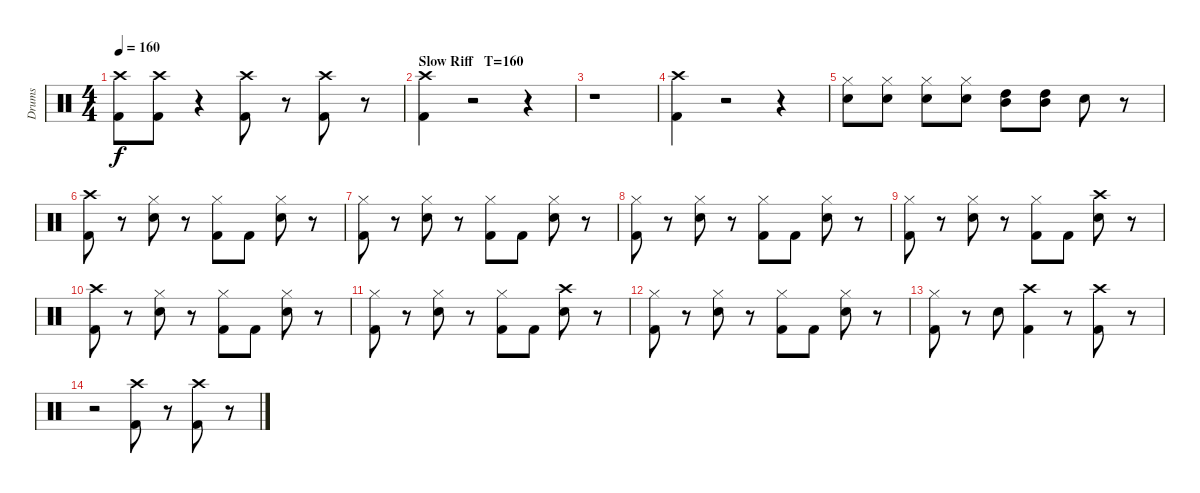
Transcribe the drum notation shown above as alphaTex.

\track ("Drums" "Drums") {instrument percussion}
\staff {score}
\articulation defaults
\ts (4 4)
\tempo 160
\clef neutral
\ks c
("Kick (hit) 2" "Crash high (hit)").8{dy f} ("Kick (hit) 2" "Crash high (hit)").8 r.4 ("Kick (hit) 2" "Crash high (hit)").8 r.8 ("Kick (hit) 2" "Crash high (hit)").8 r.8 |
\section ("" "Slow Riff   T=160")
("Crash high (hit)" "Kick (hit) 2").4 r.2 r.4 |
r.1 |
("Kick (hit) 2" "Crash high (hit)").4 r.2 r.4 |
("Hi-Hat (closed)" "Snare (hit) 2").8 ("Hi-Hat (closed)" "Snare (hit) 2").8 ("Hi-Hat (closed)" "Snare (hit) 2").8 ("Hi-Hat (closed)" "Snare (hit) 2").8 ("High Tom (hit)" "Mid Tom (hit)").8 ("Mid Tom (hit)" "High Tom (hit)").8 "Snare (hit) 2".8 r.8 |
("Kick (hit) 2" "Crash high (hit)").8 r.8 ("Hi-Hat (closed)" "Snare (hit) 2").8 r.8 ("Hi-Hat (closed)" "Kick (hit) 2").8 "Kick (hit) 2".8 ("Hi-Hat (closed)" "Snare (hit) 2").8 r.8 |
("Kick (hit) 2" "Hi-Hat (closed)").8 r.8 ("Snare (hit) 2" "Hi-Hat (closed)").8 r.8 ("Kick (hit) 2" "Hi-Hat (closed)").8 "Kick (hit) 2".8 ("Snare (hit) 2" "Hi-Hat (closed)").8 r.8 |
("Kick (hit) 2" "Hi-Hat (closed)").8 r.8 ("Snare (hit) 2" "Hi-Hat (closed)").8 r.8 ("Kick (hit) 2" "Hi-Hat (closed)").8 "Kick (hit) 2".8 ("Snare (hit) 2" "Hi-Hat (closed)").8 r.8 |
("Kick (hit) 2" "Hi-Hat (closed)").8 r.8 ("Snare (hit) 2" "Hi-Hat (closed)").8 r.8 ("Kick (hit) 2" "Hi-Hat (closed)").8 "Kick (hit) 2".8 ("Snare (hit) 2" "Crash high (hit)").8 r.8 |
("Kick (hit) 2" "Crash high (hit)").8 r.8 ("Hi-Hat (closed)" "Snare (hit) 2").8 r.8 ("Hi-Hat (closed)" "Kick (hit) 2").8 "Kick (hit) 2".8 ("Snare (hit) 2" "Hi-Hat (closed)").8 r.8 |
("Kick (hit) 2" "Hi-Hat (closed)").8 r.8 ("Snare (hit) 2" "Hi-Hat (closed)").8 r.8 ("Kick (hit) 2" "Hi-Hat (closed)").8 "Kick (hit) 2".8 ("Snare (hit) 2" "Crash high (hit)").8 r.8 |
("Kick (hit) 2" "Hi-Hat (closed)").8 r.8 ("Snare (hit) 2" "Hi-Hat (closed)").8 r.8 ("Kick (hit) 2" "Hi-Hat (closed)").8 "Kick (hit) 2".8 ("Snare (hit) 2" "Hi-Hat (closed)").8 r.8 |
("Kick (hit) 2" "Hi-Hat (closed)").8 r.8 "Snare (hit) 2".8 ("Crash high (hit)" "Kick (hit) 2").4 r.8 ("Crash high (hit)" "Kick (hit) 2").8 r.8 |
r.2 ("Kick (hit) 2" "Crash high (hit)").8 r.8 ("Kick (hit) 2" "Crash high (hit)").8 r.8
